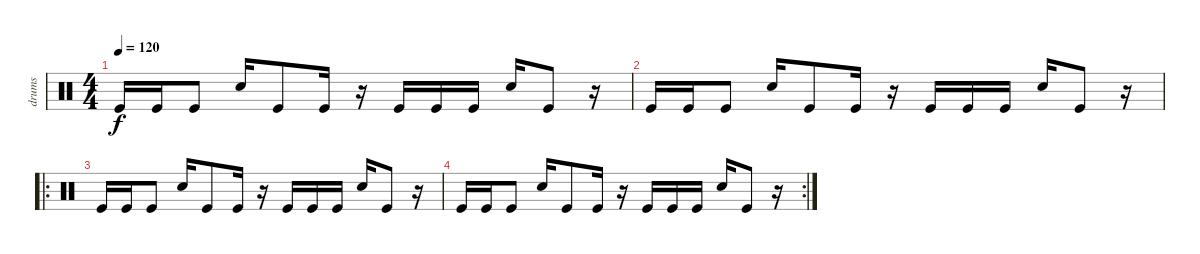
\track ("drums" "drums") {instrument percussion}
\staff {score}
\articulation defaults
\ts (4 4)
\tempo 120
\clef neutral
\ks c "Kick (hit)".16{dy f} "Kick (hit)".16 "Kick (hit)".8 "Electric Snare (hit)".16 "Kick (hit)".8 "Kick (hit)".16
r.16 "Kick (hit)".16 "Kick (hit)".16 "Kick (hit)".16 "Electric Snare (hit)".16 "Kick (hit)".8 r.16 |
"Kick (hit)".16 "Kick (hit)".16 "Kick (hit)".8 "Electric Snare (hit)".16 "Kick (hit)".8 "Kick (hit)".16 r.16 "Kick (hit)".16 "Kick (hit)".16 "Kick (hit)".16 "Electric Snare (hit)".16 "Kick (hit)".8 r.16 |
\ro "Kick (hit)".16 "Kick (hit)".16 "Kick (hit)".8 "Electric Snare (hit)".16 "Kick (hit)".8 "Kick (hit)".16
r.16 "Kick (hit)".16 "Kick (hit)".16 "Kick (hit)".16 "Electric Snare (hit)".16 "Kick (hit)".8 r.16 |
\rc 2 "Kick (hit)".16 "Kick (hit)".16 "Kick (hit)".8 "Electric Snare (hit)".16 "Kick (hit)".8 "Kick (hit)".16
r.16 "Kick (hit)".16 "Kick (hit)".16 "Kick (hit)".16 "Electric Snare (hit)".16 "Kick (hit)".8 r.16
